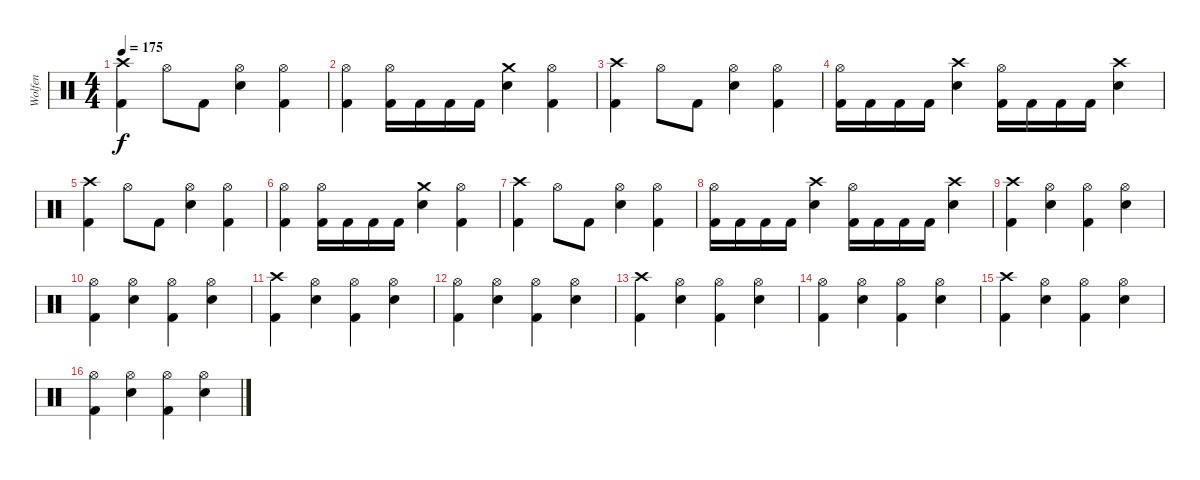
\track ("Wolfen" "Wolfen") {instrument percussion}
\staff {score}
\articulation defaults
\ts (4 4)
\tempo 175
\clef neutral
\ks c
("Crash high (hit)" "Kick (hit) 2").4{dy f} "Hi-Hat (open)".8 "Kick (hit) 2".8 ("Hi-Hat (open)" "Electric Snare (hit)").4 ("Hi-Hat (open)" "Kick (hit) 2").4 |
("Hi-Hat (open)" "Kick (hit) 2").4 ("Hi-Hat (open)" "Kick (hit) 2").16 "Kick (hit) 2".16 "Kick (hit) 2".16 "Kick (hit) 2".16 ("Crash medium (hit)" "Electric Snare (hit)").4 ("Hi-Hat (open)" "Kick (hit) 2").4 |
("Crash high (hit)" "Kick (hit) 2").4 "Hi-Hat (open)".8 "Kick (hit) 2".8 ("Hi-Hat (open)" "Electric Snare (hit)").4 ("Hi-Hat (open)" "Kick (hit) 2").4 |
("Hi-Hat (open)" "Kick (hit) 2").16 "Kick (hit) 2".16 "Kick (hit) 2".16 "Kick (hit) 2".16 ("Crash high (hit)" "Electric Snare (hit)").4 ("Hi-Hat (open)" "Kick (hit) 2").16 "Kick (hit) 2".16 "Kick (hit) 2".16 "Kick (hit) 2".16 ("Crash high (hit)" "Electric Snare (hit)").4 |
("Crash high (hit)" "Kick (hit) 2").4 "Hi-Hat (open)".8 "Kick (hit) 2".8 ("Hi-Hat (open)" "Electric Snare (hit)").4 ("Hi-Hat (open)" "Kick (hit) 2").4 |
("Hi-Hat (open)" "Kick (hit) 2").4 ("Hi-Hat (open)" "Kick (hit) 2").16 "Kick (hit) 2".16 "Kick (hit) 2".16 "Kick (hit) 2".16 ("Crash medium (hit)" "Electric Snare (hit)").4 ("Hi-Hat (open)" "Kick (hit) 2").4 |
("Crash high (hit)" "Kick (hit) 2").4 "Hi-Hat (open)".8 "Kick (hit) 2".8 ("Hi-Hat (open)" "Electric Snare (hit)").4 ("Hi-Hat (open)" "Kick (hit) 2").4 |
("Hi-Hat (open)" "Kick (hit) 2").16 "Kick (hit) 2".16 "Kick (hit) 2".16 "Kick (hit) 2".16 ("Crash high (hit)" "Electric Snare (hit)").4 ("Hi-Hat (open)" "Kick (hit) 2").16 "Kick (hit) 2".16 "Kick (hit) 2".16 "Kick (hit) 2".16 ("Crash high (hit)" "Electric Snare (hit)").4 |
("Crash high (hit)" "Kick (hit) 2").4 ("Hi-Hat (open)" "Electric Snare (hit)").4 ("Hi-Hat (open)" "Kick (hit) 2").4 ("Hi-Hat (open)" "Electric Snare (hit)").4 |
("Hi-Hat (open)" "Kick (hit) 2").4 ("Hi-Hat (open)" "Electric Snare (hit)").4 ("Hi-Hat (open)" "Kick (hit) 2").4 ("Hi-Hat (open)" "Electric Snare (hit)").4 |
("Crash high (hit)" "Kick (hit) 2").4 ("Hi-Hat (open)" "Electric Snare (hit)").4 ("Hi-Hat (open)" "Kick (hit) 2").4 ("Hi-Hat (open)" "Electric Snare (hit)").4 |
("Hi-Hat (open)" "Kick (hit) 2").4 ("Hi-Hat (open)" "Electric Snare (hit)").4 ("Hi-Hat (open)" "Kick (hit) 2").4 ("Hi-Hat (open)" "Electric Snare (hit)").4 |
("Crash high (hit)" "Kick (hit) 2").4 ("Hi-Hat (open)" "Electric Snare (hit)").4 ("Hi-Hat (open)" "Kick (hit) 2").4 ("Hi-Hat (open)" "Electric Snare (hit)").4 |
("Hi-Hat (open)" "Kick (hit) 2").4 ("Hi-Hat (open)" "Electric Snare (hit)").4 ("Hi-Hat (open)" "Kick (hit) 2").4 ("Hi-Hat (open)" "Electric Snare (hit)").4 |
("Crash high (hit)" "Kick (hit) 2").4 ("Hi-Hat (open)" "Electric Snare (hit)").4 ("Hi-Hat (open)" "Kick (hit) 2").4 ("Hi-Hat (open)" "Electric Snare (hit)").4 |
("Hi-Hat (open)" "Kick (hit) 2").4 ("Hi-Hat (open)" "Electric Snare (hit)").4 ("Hi-Hat (open)" "Kick (hit) 2").4 ("Hi-Hat (open)" "Electric Snare (hit)").4
